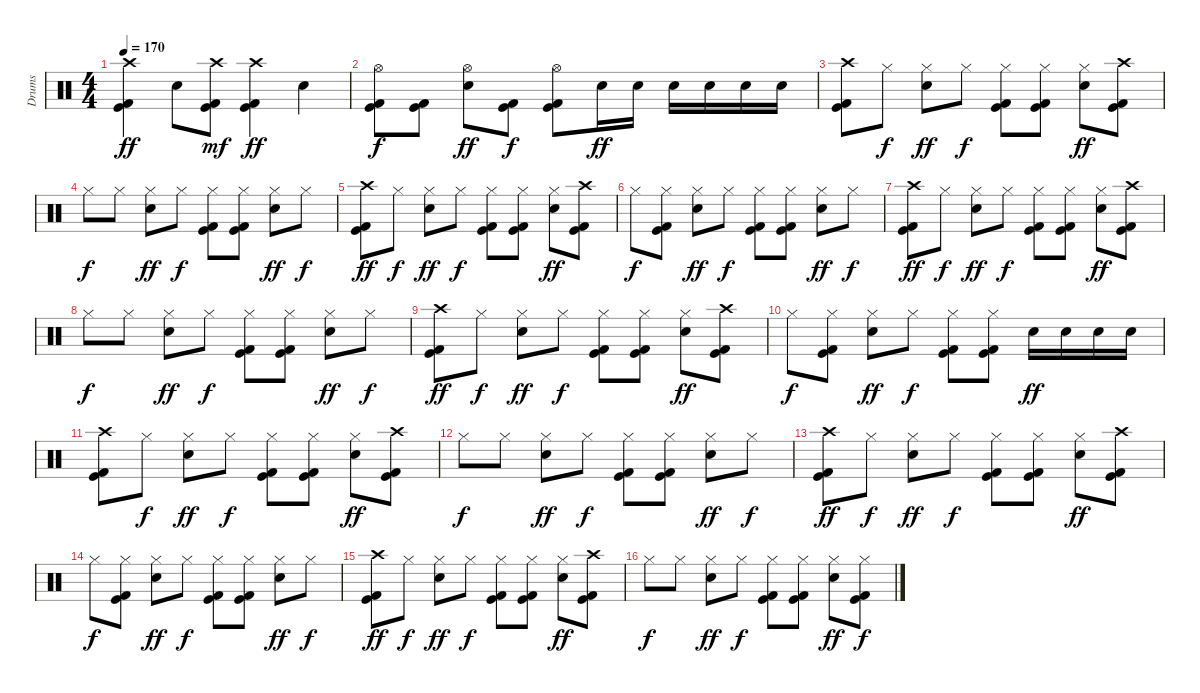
\track ("Drums" "Drums") {instrument percussion}
\staff {score}
\articulation defaults
\ts (4 4)
\tempo 170
\clef neutral
\ks c
("Crash high (hit)" "Kick (hit)" "Kick (hit) 2").4{dy ff} "Snare (hit) 2".8 ("Crash high (hit)" "Kick (hit)" "Kick (hit) 2").8{dy mf} ("Crash high (hit)" "Kick (hit)" "Kick (hit) 2").4{dy ff} "Snare (hit) 2".4 |
("Hi-Hat (open)" "Kick (hit)" "Kick (hit) 2").8{dy f} ("Kick (hit)" "Kick (hit) 2").8 ("Hi-Hat (open)" "Snare (hit) 2").8{dy ff} ("Kick (hit)" "Kick (hit) 2").8{dy f} ("Hi-Hat (open)" "Kick (hit)" "Kick (hit) 2").8 "Snare (hit) 2".16{dy ff} "Snare (hit) 2".16 "Snare (hit) 2".16 "Snare (hit) 2".16 "Snare (hit) 2".16 "Snare (hit) 2".16 |
("Crash high (hit)" "Kick (hit)" "Kick (hit) 2").8 "Hi-Hat (closed)".8{dy f} ("Hi-Hat (closed)" "Snare (hit) 2").8{dy ff} "Hi-Hat (closed)".8{dy f} ("Hi-Hat (closed)" "Kick (hit)" "Kick (hit) 2").8 ("Hi-Hat (closed)" "Kick (hit)" "Kick (hit) 2").8 ("Hi-Hat (closed)" "Snare (hit) 2").8{dy ff} ("Crash high (hit)" "Kick (hit)" "Kick (hit) 2").8 |
"Hi-Hat (closed)".8{dy f} "Hi-Hat (closed)".8 ("Hi-Hat (closed)" "Snare (hit) 2").8{dy ff} "Hi-Hat (closed)".8{dy f} ("Hi-Hat (closed)" "Kick (hit)" "Kick (hit) 2").8 ("Hi-Hat (closed)" "Kick (hit)" "Kick (hit) 2").8 ("Hi-Hat (closed)" "Snare (hit) 2").8{dy ff} "Hi-Hat (closed)".8{dy f} |
("Crash high (hit)" "Kick (hit)" "Kick (hit) 2").8{dy ff} "Hi-Hat (closed)".8{dy f} ("Hi-Hat (closed)" "Snare (hit) 2").8{dy ff} "Hi-Hat (closed)".8{dy f} ("Hi-Hat (closed)" "Kick (hit)" "Kick (hit) 2").8 ("Hi-Hat (closed)" "Kick (hit)" "Kick (hit) 2").8 ("Hi-Hat (closed)" "Snare (hit) 2").8{dy ff} ("Crash high (hit)" "Kick (hit)" "Kick (hit) 2").8 |
"Hi-Hat (closed)".8{dy f} ("Hi-Hat (closed)" "Kick (hit)" "Kick (hit) 2").8 ("Hi-Hat (closed)" "Snare (hit) 2").8{dy ff} "Hi-Hat (closed)".8{dy f} ("Hi-Hat (closed)" "Kick (hit)" "Kick (hit) 2").8 ("Hi-Hat (closed)" "Kick (hit)" "Kick (hit) 2").8 ("Hi-Hat (closed)" "Snare (hit) 2").8{dy ff} "Hi-Hat (closed)".8{dy f} |
("Crash high (hit)" "Kick (hit)" "Kick (hit) 2").8{dy ff} "Hi-Hat (closed)".8{dy f} ("Hi-Hat (closed)" "Snare (hit) 2").8{dy ff} "Hi-Hat (closed)".8{dy f} ("Hi-Hat (closed)" "Kick (hit)" "Kick (hit) 2").8 ("Hi-Hat (closed)" "Kick (hit)" "Kick (hit) 2").8 ("Hi-Hat (closed)" "Snare (hit) 2").8{dy ff} ("Crash high (hit)" "Kick (hit)" "Kick (hit) 2").8 |
"Hi-Hat (closed)".8{dy f} "Hi-Hat (closed)".8 ("Hi-Hat (closed)" "Snare (hit) 2").8{dy ff} "Hi-Hat (closed)".8{dy f} ("Hi-Hat (closed)" "Kick (hit)" "Kick (hit) 2").8 ("Hi-Hat (closed)" "Kick (hit)" "Kick (hit) 2").8 ("Hi-Hat (closed)" "Snare (hit) 2").8{dy ff} "Hi-Hat (closed)".8{dy f} |
("Crash high (hit)" "Kick (hit)" "Kick (hit) 2").8{dy ff} "Hi-Hat (closed)".8{dy f} ("Hi-Hat (closed)" "Snare (hit) 2").8{dy ff} "Hi-Hat (closed)".8{dy f} ("Hi-Hat (closed)" "Kick (hit)" "Kick (hit) 2").8 ("Hi-Hat (closed)" "Kick (hit)" "Kick (hit) 2").8 ("Hi-Hat (closed)" "Snare (hit) 2").8{dy ff} ("Crash high (hit)" "Kick (hit)" "Kick (hit) 2").8 |
"Hi-Hat (closed)".8{dy f} ("Hi-Hat (closed)" "Kick (hit)" "Kick (hit) 2").8 ("Hi-Hat (closed)" "Snare (hit) 2").8{dy ff} "Hi-Hat (closed)".8{dy f} ("Hi-Hat (closed)" "Kick (hit)" "Kick (hit) 2").8 ("Hi-Hat (closed)" "Kick (hit)" "Kick (hit) 2").8 "Snare (hit) 2".16{dy ff} "Snare (hit) 2".16 "Snare (hit) 2".16 "Snare (hit) 2".16 |
("Crash high (hit)" "Kick (hit)" "Kick (hit) 2").8 "Hi-Hat (closed)".8{dy f} ("Hi-Hat (closed)" "Snare (hit) 2").8{dy ff} "Hi-Hat (closed)".8{dy f} ("Hi-Hat (closed)" "Kick (hit)" "Kick (hit) 2").8 ("Hi-Hat (closed)" "Kick (hit)" "Kick (hit) 2").8 ("Hi-Hat (closed)" "Snare (hit) 2").8{dy ff} ("Crash high (hit)" "Kick (hit)" "Kick (hit) 2").8 |
"Hi-Hat (closed)".8{dy f} "Hi-Hat (closed)".8 ("Hi-Hat (closed)" "Snare (hit) 2").8{dy ff} "Hi-Hat (closed)".8{dy f} ("Hi-Hat (closed)" "Kick (hit)" "Kick (hit) 2").8 ("Hi-Hat (closed)" "Kick (hit)" "Kick (hit) 2").8 ("Hi-Hat (closed)" "Snare (hit) 2").8{dy ff} "Hi-Hat (closed)".8{dy f} |
("Crash high (hit)" "Kick (hit)" "Kick (hit) 2").8{dy ff} "Hi-Hat (closed)".8{dy f} ("Hi-Hat (closed)" "Snare (hit) 2").8{dy ff} "Hi-Hat (closed)".8{dy f} ("Hi-Hat (closed)" "Kick (hit)" "Kick (hit) 2").8 ("Hi-Hat (closed)" "Kick (hit)" "Kick (hit) 2").8 ("Hi-Hat (closed)" "Snare (hit) 2").8{dy ff} ("Crash high (hit)" "Kick (hit)" "Kick (hit) 2").8 |
"Hi-Hat (closed)".8{dy f} ("Hi-Hat (closed)" "Kick (hit)" "Kick (hit) 2").8 ("Hi-Hat (closed)" "Snare (hit) 2").8{dy ff} "Hi-Hat (closed)".8{dy f} ("Hi-Hat (closed)" "Kick (hit)" "Kick (hit) 2").8 ("Hi-Hat (closed)" "Kick (hit)" "Kick (hit) 2").8 ("Hi-Hat (closed)" "Snare (hit) 2").8{dy ff} "Hi-Hat (closed)".8{dy f} |
("Crash high (hit)" "Kick (hit)" "Kick (hit) 2").8{dy ff} "Hi-Hat (closed)".8{dy f} ("Hi-Hat (closed)" "Snare (hit) 2").8{dy ff} "Hi-Hat (closed)".8{dy f} ("Hi-Hat (closed)" "Kick (hit)" "Kick (hit) 2").8 ("Hi-Hat (closed)" "Kick (hit)" "Kick (hit) 2").8 ("Hi-Hat (closed)" "Snare (hit) 2").8{dy ff} ("Crash high (hit)" "Kick (hit)" "Kick (hit) 2").8 |
"Hi-Hat (closed)".8{dy f} "Hi-Hat (closed)".8 ("Hi-Hat (closed)" "Snare (hit) 2").8{dy ff} "Hi-Hat (closed)".8{dy f} ("Hi-Hat (closed)" "Kick (hit)" "Kick (hit) 2").8 ("Hi-Hat (closed)" "Kick (hit)" "Kick (hit) 2").8 ("Hi-Hat (closed)" "Snare (hit) 2").8{dy ff} ("Hi-Hat (closed)" "Kick (hit)" "Kick (hit) 2").8{dy f}
